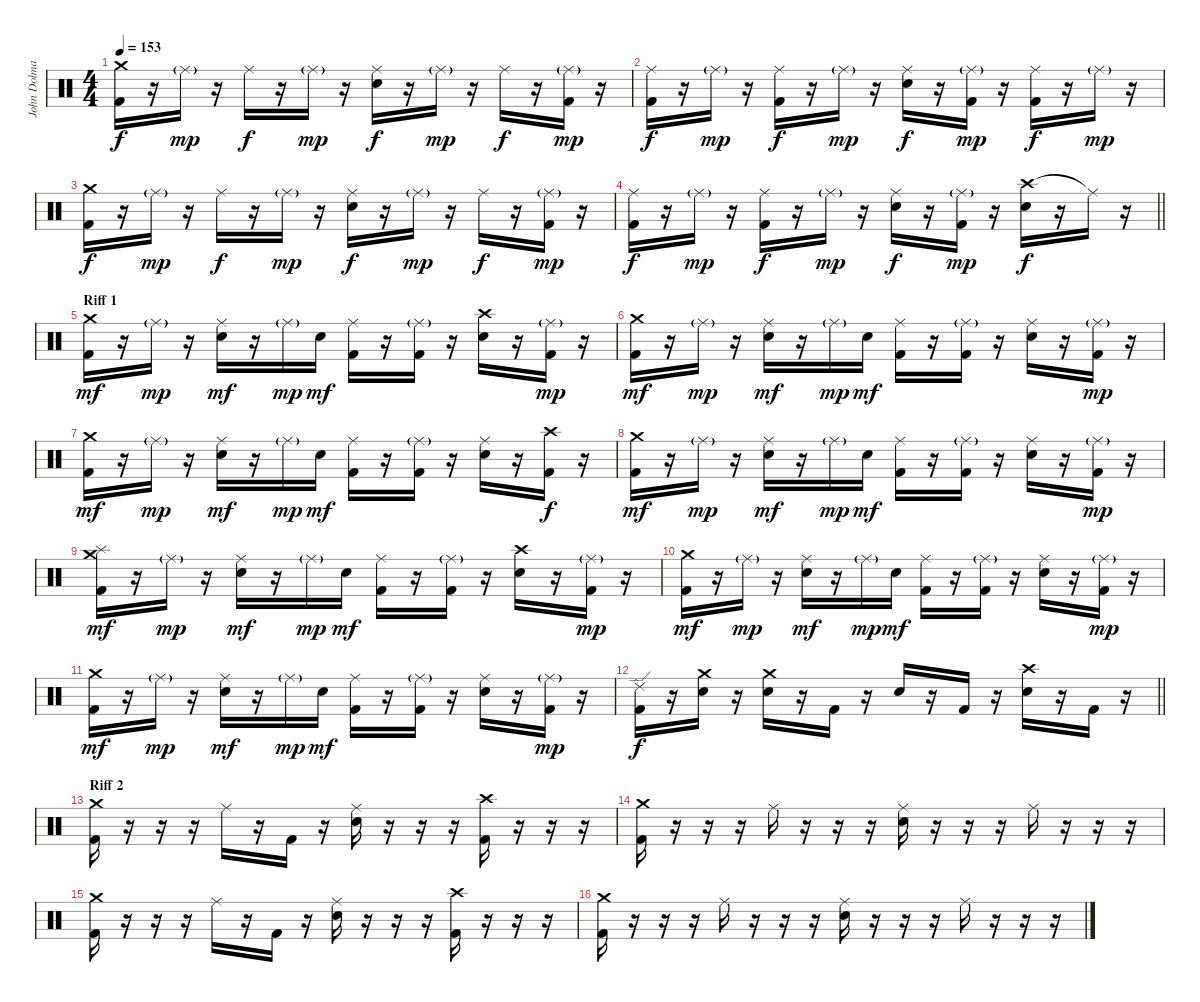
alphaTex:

\track ("John Dolmayan" "John Dolma") {instrument percussion}
\staff {score}
\articulation defaults
\ts (4 4)
\tempo 153
\clef neutral
\ks c
("Crash medium (hit)" "Kick (hit) 2").16{dy f} r.16 "Ride (middle)"{g}.16{dy mp} r.16 "Ride (middle)".16{dy f} r.16 "Ride (middle)"{g}.16{dy mp} r.16 ("Ride (middle)" "Electric Snare (hit)").16{dy f} r.16 "Ride (middle)"{g}.16{dy mp} r.16 "Ride (middle)".16{dy f} r.16 ("Ride (middle)"{g} "Kick (hit) 2").16{dy mp} r.16 |
("Ride (middle)" "Kick (hit) 2").16{dy f} r.16 "Ride (middle)"{g}.16{dy mp} r.16 ("Ride (middle)" "Kick (hit) 2").16{dy f} r.16 "Ride (middle)"{g}.16{dy mp} r.16 ("Ride (middle)" "Electric Snare (hit)").16{dy f} r.16 ("Ride (middle)"{g} "Kick (hit) 2").16{dy mp} r.16 ("Ride (middle)" "Kick (hit) 2").16{dy f} r.16 "Ride (middle)"{g}.16{dy mp} r.16 |
("Crash medium (hit)" "Kick (hit) 2").16{dy f} r.16 "Ride (middle)"{g}.16{dy mp} r.16 "Ride (middle)".16{dy f} r.16 "Ride (middle)"{g}.16{dy mp} r.16 ("Ride (middle)" "Electric Snare (hit)").16{dy f} r.16 "Ride (middle)"{g}.16{dy mp} r.16 "Ride (middle)".16{dy f} r.16 ("Ride (middle)"{g} "Kick (hit) 2").16{dy mp} r.16 |
\barLineRight lightlight
("Ride (middle)" "Kick (hit) 2").16{dy f} r.16 "Ride (middle)"{g}.16{dy mp} r.16 ("Ride (middle)" "Kick (hit) 2").16{dy f} r.16 "Ride (middle)"{g}.16{dy mp} r.16 ("Ride (middle)" "Electric Snare (hit)").16{dy f} r.16 ("Ride (middle)"{g} "Kick (hit) 2").16{dy mp} r.16 ("Crash high (hit)" "Electric Snare (hit)").16{dy f} r.16 "Ride (middle)"{t}.16 r.16 |
\section ("" "Riff 1")
("Crash medium (hit)" "Kick (hit) 2").16{dy mf} r.16 "Ride (middle)"{g}.16{dy mp} r.16 ("Ride (middle)" "Electric Snare (hit)").16{dy mf} r.16 "Ride (middle)"{g}.16{dy mp} "Electric Snare (hit)".16{dy mf} ("Ride (middle)" "Kick (hit) 2").16 r.16 ("Ride (middle)"{g} "Kick (hit) 2").16 r.16 ("Crash high (hit)" "Electric Snare (hit)").16 r.16 ("Ride (middle)"{g} "Kick (hit) 2").16{dy mp} r.16 |
("Crash medium (hit)" "Kick (hit) 2").16{dy mf} r.16 "Ride (middle)"{g}.16{dy mp} r.16 ("Ride (middle)" "Electric Snare (hit)").16{dy mf} r.16 "Ride (middle)"{g}.16{dy mp} "Electric Snare (hit)".16{dy mf} ("Ride (middle)" "Kick (hit) 2").16 r.16 ("Ride (middle)"{g} "Kick (hit) 2").16 r.16 ("Ride (middle)" "Electric Snare (hit)").16 r.16 ("Ride (middle)"{g} "Kick (hit) 2").16{dy mp} r.16 |
("Crash medium (hit)" "Kick (hit) 2").16{dy mf} r.16 "Ride (middle)"{g}.16{dy mp} r.16 ("Ride (middle)" "Electric Snare (hit)").16{dy mf} r.16 "Ride (middle)"{g}.16{dy mp} "Electric Snare (hit)".16{dy mf} ("Ride (middle)" "Kick (hit) 2").16 r.16 ("Ride (middle)"{g} "Kick (hit) 2").16 r.16 ("Ride (middle)" "Electric Snare (hit)").16 r.16 ("Crash high (hit)" "Kick (hit) 2").16{dy f} r.16 |
("Crash medium (hit)" "Kick (hit) 2").16{dy mf} r.16 "Ride (middle)"{g}.16{dy mp} r.16 ("Ride (middle)" "Electric Snare (hit)").16{dy mf} r.16 "Ride (middle)"{g}.16{dy mp} "Electric Snare (hit)".16{dy mf} ("Ride (middle)" "Kick (hit) 2").16 r.16 ("Ride (middle)"{g} "Kick (hit) 2").16 r.16 ("Ride (middle)" "Electric Snare (hit)").16 r.16 ("Ride (middle)"{g} "Kick (hit) 2").16{dy mp} r.16 |
("Crash medium (hit)" "Splash (hit)" "Kick (hit) 2").16{dy mf} r.16 "Ride (middle)"{g}.16{dy mp} r.16 ("Ride (middle)" "Electric Snare (hit)").16{dy mf} r.16 "Ride (middle)"{g}.16{dy mp} "Electric Snare (hit)".16{dy mf} ("Ride (middle)" "Kick (hit) 2").16 r.16 ("Ride (middle)"{g} "Kick (hit) 2").16 r.16 ("Crash high (hit)" "Electric Snare (hit)").16 r.16 ("Ride (middle)"{g} "Kick (hit) 2").16{dy mp} r.16 |
("Crash medium (hit)" "Kick (hit) 2").16{dy mf} r.16 "Ride (middle)"{g}.16{dy mp} r.16 ("Ride (middle)" "Electric Snare (hit)").16{dy mf} r.16 "Ride (middle)"{g}.16{dy mp} "Electric Snare (hit)".16{dy mf} ("Ride (middle)" "Kick (hit) 2").16 r.16 ("Ride (middle)"{g} "Kick (hit) 2").16 r.16 ("Ride (middle)" "Electric Snare (hit)").16 r.16 ("Ride (middle)"{g} "Kick (hit) 2").16{dy mp} r.16 |
("Crash medium (hit)" "Kick (hit) 2").16{dy mf} r.16 "Ride (middle)"{g}.16{dy mp} r.16 ("Ride (middle)" "Electric Snare (hit)").16{dy mf} r.16 "Ride (middle)"{g}.16{dy mp} "Electric Snare (hit)".16{dy mf} ("Ride (middle)" "Kick (hit) 2").16 r.16 ("Ride (middle)"{g} "Kick (hit) 2").16 r.16 ("Ride (middle)" "Electric Snare (hit)").16 r.16 ("Ride (middle)"{g} "Kick (hit) 2").16{dy mp} r.16 |
\barLineRight lightlight
("Ride (edge) 2" "Kick (hit) 2").16{dy f} r.16 ("Crash medium (hit)" "Electric Snare (hit)").16 r.16 ("Crash medium (hit)" "Electric Snare (hit)").16 r.16 "Kick (hit) 2".16 r.16 "Electric Snare (hit)".16 r.16 "Kick (hit) 2".16 r.16 ("Crash high (hit)" "Electric Snare (hit)").16 r.16 "Kick (hit) 2".16 r.16 |
\section ("" "Riff 2")
("Crash medium (hit)" "Kick (hit) 2").16 r.16 r.16 r.16 "Ride (middle)".16 r.16 "Kick (hit) 2".16 r.16 ("Ride (middle)" "Electric Snare (hit)").16 r.16 r.16 r.16 ("Crash high (hit)" "Kick (hit) 2").16 r.16 r.16 r.16 |
("Crash medium (hit)" "Kick (hit) 2").16 r.16 r.16 r.16 "Ride (middle)".16 r.16 r.16 r.16 ("Ride (middle)" "Electric Snare (hit)").16 r.16 r.16 r.16 "Ride (middle)".16 r.16 r.16 r.16 |
("Crash medium (hit)" "Kick (hit) 2").16 r.16 r.16 r.16 "Ride (middle)".16 r.16 "Kick (hit) 2".16 r.16 ("Ride (middle)" "Electric Snare (hit)").16 r.16 r.16 r.16 ("Crash high (hit)" "Kick (hit) 2").16 r.16 r.16 r.16 |
("Crash medium (hit)" "Kick (hit) 2").16 r.16 r.16 r.16 "Ride (middle)".16 r.16 r.16 r.16 ("Ride (middle)" "Electric Snare (hit)").16 r.16 r.16 r.16 "Ride (middle)".16 r.16 r.16 r.16
